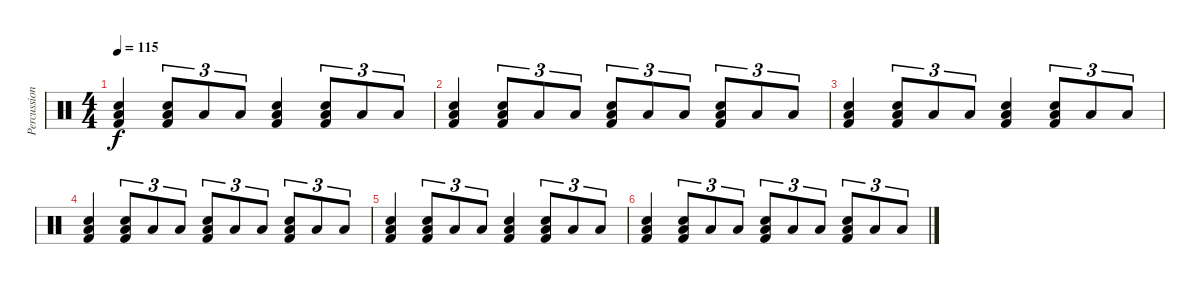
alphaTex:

\track ("Percussions" "Percussion") {instrument percussion}
\staff {score}
\articulation defaults
\ts (4 4)
\tempo 115
\clef neutral
\ks c
("Kick (hit) 2" "Low Tom (hit)" "Snare (hit) 2").4{dy f} ("Kick (hit) 2" "Low Tom (hit)" "Snare (hit) 2").8{tu (3 2)} "Low Tom (hit)".8{tu (3 2)} "Low Tom (hit)".8{tu (3 2)} ("Kick (hit) 2" "Low Tom (hit)" "Snare (hit) 2").4 ("Kick (hit) 2" "Low Tom (hit)" "Snare (hit) 2").8{tu (3 2)} "Low Tom (hit)".8{tu (3 2)} "Low Tom (hit)".8{tu (3 2)} |
("Kick (hit) 2" "Low Tom (hit)" "Snare (hit) 2").4 ("Kick (hit) 2" "Low Tom (hit)" "Snare (hit) 2").8{tu (3 2)} "Low Tom (hit)".8{tu (3 2)} "Low Tom (hit)".8{tu (3 2)} ("Kick (hit) 2" "Low Tom (hit)" "Snare (hit) 2").8{tu (3 2)} "Low Tom (hit)".8{tu (3 2)} "Low Tom (hit)".8{tu (3 2)} ("Kick (hit) 2" "Low Tom (hit)" "Snare (hit) 2").8{tu (3 2)} "Low Tom (hit)".8{tu (3 2)} "Low Tom (hit)".8{tu (3 2)} |
("Kick (hit) 2" "Low Tom (hit)" "Snare (hit) 2").4 ("Kick (hit) 2" "Low Tom (hit)" "Snare (hit) 2").8{tu (3 2)} "Low Tom (hit)".8{tu (3 2)} "Low Tom (hit)".8{tu (3 2)} ("Kick (hit) 2" "Low Tom (hit)" "Snare (hit) 2").4 ("Kick (hit) 2" "Low Tom (hit)" "Snare (hit) 2").8{tu (3 2)} "Low Tom (hit)".8{tu (3 2)} "Low Tom (hit)".8{tu (3 2)} |
("Kick (hit) 2" "Low Tom (hit)" "Snare (hit) 2").4 ("Kick (hit) 2" "Low Tom (hit)" "Snare (hit) 2").8{tu (3 2)} "Low Tom (hit)".8{tu (3 2)} "Low Tom (hit)".8{tu (3 2)} ("Kick (hit) 2" "Low Tom (hit)" "Snare (hit) 2").8{tu (3 2)} "Low Tom (hit)".8{tu (3 2)} "Low Tom (hit)".8{tu (3 2)} ("Kick (hit) 2" "Low Tom (hit)" "Snare (hit) 2").8{tu (3 2)} "Low Tom (hit)".8{tu (3 2)} "Low Tom (hit)".8{tu (3 2)} |
("Kick (hit) 2" "Low Tom (hit)" "Snare (hit) 2").4 ("Kick (hit) 2" "Low Tom (hit)" "Snare (hit) 2").8{tu (3 2)} "Low Tom (hit)".8{tu (3 2)} "Low Tom (hit)".8{tu (3 2)} ("Kick (hit) 2" "Low Tom (hit)" "Snare (hit) 2").4 ("Kick (hit) 2" "Low Tom (hit)" "Snare (hit) 2").8{tu (3 2)} "Low Tom (hit)".8{tu (3 2)} "Low Tom (hit)".8{tu (3 2)} |
("Kick (hit) 2" "Low Tom (hit)" "Snare (hit) 2").4 ("Kick (hit) 2" "Low Tom (hit)" "Snare (hit) 2").8{tu (3 2)} "Low Tom (hit)".8{tu (3 2)} "Low Tom (hit)".8{tu (3 2)} ("Kick (hit) 2" "Low Tom (hit)" "Snare (hit) 2").8{tu (3 2)} "Low Tom (hit)".8{tu (3 2)} "Low Tom (hit)".8{tu (3 2)} ("Kick (hit) 2" "Low Tom (hit)" "Snare (hit) 2").8{tu (3 2)} "Low Tom (hit)".8{tu (3 2)} "Low Tom (hit)".8{tu (3 2)}
